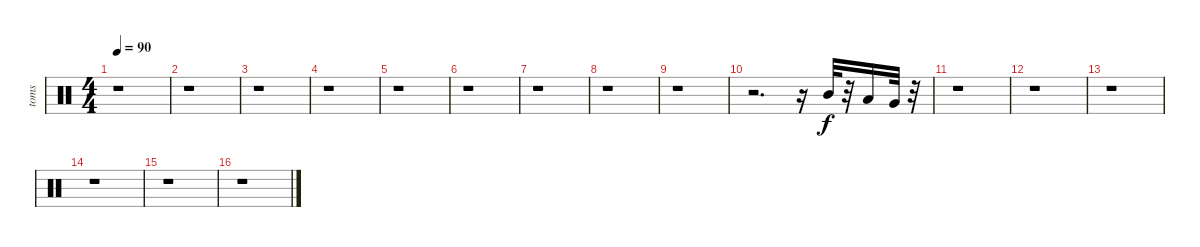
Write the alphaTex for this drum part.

\track ("toms" "toms") {instrument percussion}
\staff {score}
\articulation defaults
\ts (4 4)
\tempo 90
\clef neutral
\ks c
r.1{dy f} |
r.1 |
r.1 |
r.1 |
r.1 |
r.1 |
r.1 |
r.1 |
r.1 |
r.2{d} r.16 "Mid Tom (hit)".32 r.32 "Low Tom (hit)".16 "Very Low Tom (hit)".32 r.32 |
r.1 |
r.1 |
r.1 |
r.1 |
r.1 |
r.1
